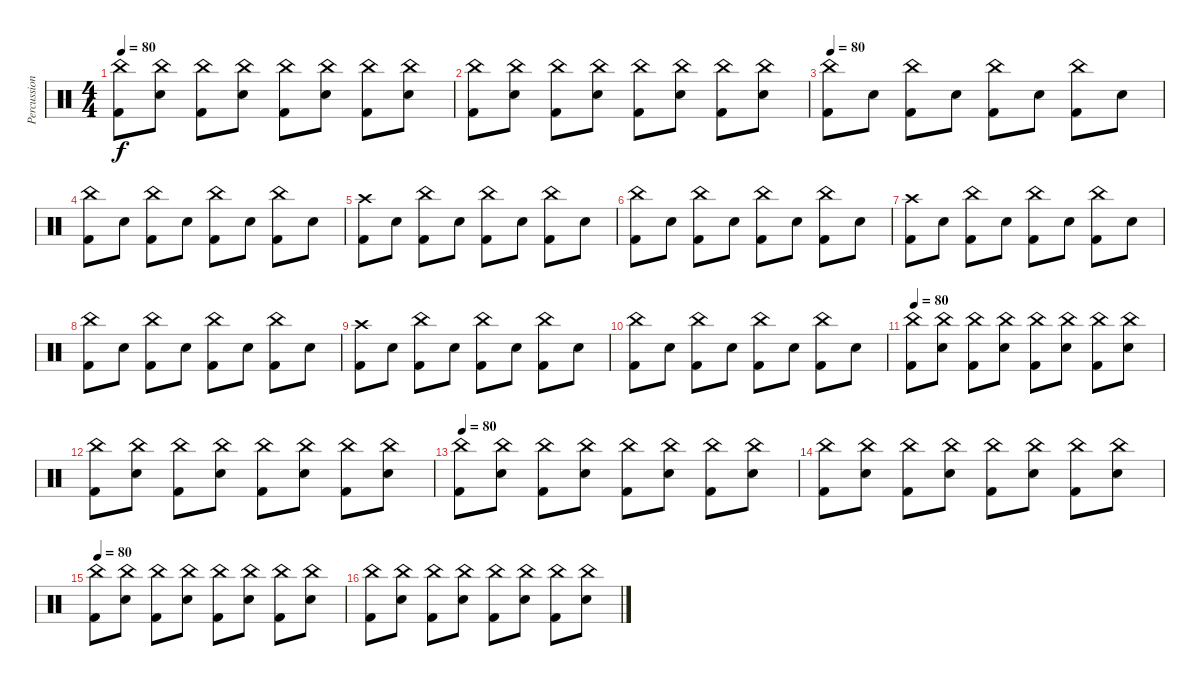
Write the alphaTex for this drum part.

\track ("Percussion" "Percussion") {instrument percussion}
\staff {score}
\articulation defaults
\ts (4 4)
\tempo 80
\clef neutral
\ks c
("China (hit)" "Kick (hit) 2").8{dy f} ("China (hit)" "Snare (hit) 2").8 ("China (hit)" "Kick (hit) 2").8 ("China (hit)" "Snare (hit) 2").8 ("China (hit)" "Kick (hit) 2").8 ("China (hit)" "Snare (hit) 2").8 ("China (hit)" "Kick (hit) 2").8 ("China (hit)" "Snare (hit) 2").8 |
("China (hit)" "Kick (hit) 2").8 ("China (hit)" "Snare (hit) 2").8 ("China (hit)" "Kick (hit) 2").8 ("China (hit)" "Snare (hit) 2").8 ("China (hit)" "Kick (hit) 2").8 ("China (hit)" "Snare (hit) 2").8 ("China (hit)" "Kick (hit) 2").8 ("China (hit)" "Snare (hit) 2").8 |
\tempo 80
("China (hit)" "Kick (hit) 2").8 "Snare (hit) 2".8 ("China (hit)" "Kick (hit) 2").8 "Snare (hit) 2".8 ("China (hit)" "Kick (hit) 2").8 "Snare (hit) 2".8 ("China (hit)" "Kick (hit) 2").8 "Snare (hit) 2".8 |
("China (hit)" "Kick (hit) 2").8 "Snare (hit) 2".8 ("China (hit)" "Kick (hit) 2").8 "Snare (hit) 2".8 ("China (hit)" "Kick (hit) 2").8 "Snare (hit) 2".8 ("China (hit)" "Kick (hit) 2").8 "Snare (hit) 2".8 |
("Crash high (hit)" "Kick (hit) 2").8 "Snare (hit) 2".8 ("China (hit)" "Kick (hit) 2").8 "Snare (hit) 2".8 ("China (hit)" "Kick (hit) 2").8 "Snare (hit) 2".8 ("China (hit)" "Kick (hit) 2").8 "Snare (hit) 2".8 |
("China (hit)" "Kick (hit) 2").8 "Snare (hit) 2".8 ("China (hit)" "Kick (hit) 2").8 "Snare (hit) 2".8 ("China (hit)" "Kick (hit) 2").8 "Snare (hit) 2".8 ("China (hit)" "Kick (hit) 2").8 "Snare (hit) 2".8 |
("Crash high (hit)" "Kick (hit) 2").8 "Snare (hit) 2".8 ("China (hit)" "Kick (hit) 2").8 "Snare (hit) 2".8 ("China (hit)" "Kick (hit) 2").8 "Snare (hit) 2".8 ("China (hit)" "Kick (hit) 2").8 "Snare (hit) 2".8 |
("China (hit)" "Kick (hit) 2").8 "Snare (hit) 2".8 ("China (hit)" "Kick (hit) 2").8 "Snare (hit) 2".8 ("China (hit)" "Kick (hit) 2").8 "Snare (hit) 2".8 ("China (hit)" "Kick (hit) 2").8 "Snare (hit) 2".8 |
("Crash high (hit)" "Kick (hit) 2").8 "Snare (hit) 2".8 ("China (hit)" "Kick (hit) 2").8 "Snare (hit) 2".8 ("China (hit)" "Kick (hit) 2").8 "Snare (hit) 2".8 ("China (hit)" "Kick (hit) 2").8 "Snare (hit) 2".8 |
("China (hit)" "Kick (hit) 2").8 "Snare (hit) 2".8 ("China (hit)" "Kick (hit) 2").8 "Snare (hit) 2".8 ("China (hit)" "Kick (hit) 2").8 "Snare (hit) 2".8 ("China (hit)" "Kick (hit) 2").8 "Snare (hit) 2".8 |
\tempo 90
\tempo 80
("China (hit)" "Kick (hit) 2").8 ("China (hit)" "Snare (hit) 2").8 ("China (hit)" "Kick (hit) 2").8 ("China (hit)" "Snare (hit) 2").8 ("China (hit)" "Kick (hit) 2").8 ("China (hit)" "Snare (hit) 2").8 ("China (hit)" "Kick (hit) 2").8 ("China (hit)" "Snare (hit) 2").8 |
("China (hit)" "Kick (hit) 2").8 ("China (hit)" "Snare (hit) 2").8 ("China (hit)" "Kick (hit) 2").8 ("China (hit)" "Snare (hit) 2").8 ("China (hit)" "Kick (hit) 2").8 ("China (hit)" "Snare (hit) 2").8 ("China (hit)" "Kick (hit) 2").8 ("China (hit)" "Snare (hit) 2").8 |
\tempo 80
("China (hit)" "Kick (hit) 2").8 ("China (hit)" "Snare (hit) 2").8 ("China (hit)" "Kick (hit) 2").8 ("China (hit)" "Snare (hit) 2").8 ("China (hit)" "Kick (hit) 2").8 ("China (hit)" "Snare (hit) 2").8 ("China (hit)" "Kick (hit) 2").8 ("China (hit)" "Snare (hit) 2").8 |
("China (hit)" "Kick (hit) 2").8 ("China (hit)" "Snare (hit) 2").8 ("China (hit)" "Kick (hit) 2").8 ("China (hit)" "Snare (hit) 2").8 ("China (hit)" "Kick (hit) 2").8 ("China (hit)" "Snare (hit) 2").8 ("China (hit)" "Kick (hit) 2").8 ("China (hit)" "Snare (hit) 2").8 |
\tempo 80
("China (hit)" "Kick (hit) 2").8 ("China (hit)" "Snare (hit) 2").8 ("China (hit)" "Kick (hit) 2").8 ("China (hit)" "Snare (hit) 2").8 ("China (hit)" "Kick (hit) 2").8 ("China (hit)" "Snare (hit) 2").8 ("China (hit)" "Kick (hit) 2").8 ("China (hit)" "Snare (hit) 2").8 |
("China (hit)" "Kick (hit) 2").8 ("China (hit)" "Snare (hit) 2").8 ("China (hit)" "Kick (hit) 2").8 ("China (hit)" "Snare (hit) 2").8 ("China (hit)" "Kick (hit) 2").8 ("China (hit)" "Snare (hit) 2").8 ("China (hit)" "Kick (hit) 2").8 ("China (hit)" "Snare (hit) 2").8
